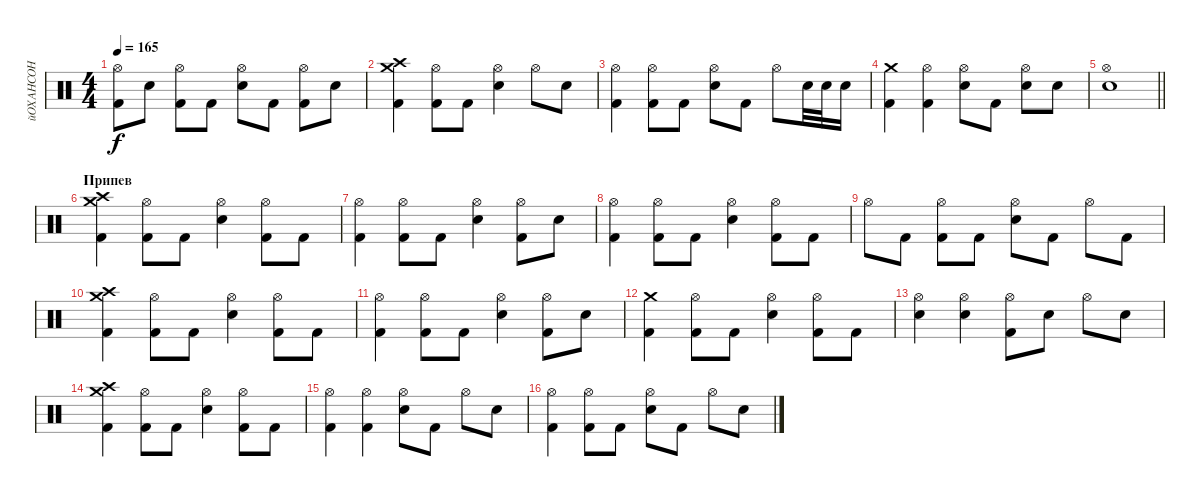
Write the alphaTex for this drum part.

\track ("йОХАНСОН" "йОХАНСОН") {instrument percussion}
\staff {score}
\articulation defaults
\ts (4 4)
\tempo 165
\clef neutral
\ks c
("Hi-Hat (open)" "Kick (hit) 2").8{dy f} "Snare (hit) 2".8 ("Hi-Hat (open)" "Kick (hit) 2").8 "Kick (hit) 2".8 ("Hi-Hat (open)" "Snare (hit) 2").8 "Kick (hit) 2".8 ("Hi-Hat (open)" "Kick (hit) 2").8 "Snare (hit) 2".8 |
("Crash high (hit)" "Crash medium (hit)" "Kick (hit) 2").4 ("Hi-Hat (open)" "Kick (hit) 2").8 "Kick (hit) 2".8 ("Hi-Hat (open)" "Snare (hit) 2").4 "Hi-Hat (open)".8 "Snare (hit) 2".8 |
("Hi-Hat (open)" "Kick (hit) 2").4 ("Hi-Hat (open)" "Kick (hit) 2").8 "Kick (hit) 2".8 ("Hi-Hat (open)" "Snare (hit) 2").8 "Kick (hit) 2".8 "Hi-Hat (open)".8 "Snare (hit) 2".32 "Snare (hit) 2".32 "Snare (hit) 2".16 |
("Crash medium (hit)" "Kick (hit) 2").4 ("Hi-Hat (open)" "Kick (hit) 2").4 ("Hi-Hat (open)" "Snare (hit) 2").8 "Kick (hit) 2".8 ("Hi-Hat (open)" "Snare (hit) 2").8 "Snare (hit) 2".8 |
\barLineRight lightlight
("Hi-Hat (open)" "Snare (hit) 2").1 |
\section ("" "Припев")
("Crash high (hit)" "Crash medium (hit)" "Kick (hit) 2").4 ("Hi-Hat (open)" "Kick (hit) 2").8 "Kick (hit) 2".8 ("Hi-Hat (open)" "Snare (hit) 2").4 ("Hi-Hat (open)" "Kick (hit) 2").8 "Kick (hit) 2".8 |
("Hi-Hat (open)" "Kick (hit) 2").4 ("Hi-Hat (open)" "Kick (hit) 2").8 "Kick (hit) 2".8 ("Hi-Hat (open)" "Snare (hit) 2").4 ("Hi-Hat (open)" "Kick (hit) 2").8 "Snare (hit) 2".8 |
("Hi-Hat (open)" "Kick (hit) 2").4 ("Hi-Hat (open)" "Kick (hit) 2").8 "Kick (hit) 2".8 ("Hi-Hat (open)" "Snare (hit) 2").4 ("Hi-Hat (open)" "Kick (hit) 2").8 "Kick (hit) 2".8 |
"Hi-Hat (open)".8 "Kick (hit) 2".8 ("Hi-Hat (open)" "Kick (hit) 2").8 "Kick (hit) 2".8 ("Hi-Hat (open)" "Snare (hit) 2").8 "Kick (hit) 2".8 "Hi-Hat (open)".8 "Kick (hit) 2".8 |
("Crash high (hit)" "Crash medium (hit)" "Kick (hit) 2").4 ("Hi-Hat (open)" "Kick (hit) 2").8 "Kick (hit) 2".8 ("Hi-Hat (open)" "Snare (hit) 2").4 ("Hi-Hat (open)" "Kick (hit) 2").8 "Kick (hit) 2".8 |
("Hi-Hat (open)" "Kick (hit) 2").4 ("Hi-Hat (open)" "Kick (hit) 2").8 "Kick (hit) 2".8 ("Hi-Hat (open)" "Snare (hit) 2").4 ("Hi-Hat (open)" "Kick (hit) 2").8 "Snare (hit) 2".8 |
("Crash medium (hit)" "Kick (hit) 2").4 ("Hi-Hat (open)" "Kick (hit) 2").8 "Kick (hit) 2".8 ("Hi-Hat (open)" "Snare (hit) 2").4 ("Hi-Hat (open)" "Kick (hit) 2").8 "Kick (hit) 2".8 |
("Hi-Hat (open)" "Snare (hit) 2").4 ("Hi-Hat (open)" "Snare (hit) 2").4 ("Hi-Hat (open)" "Kick (hit) 2").8 "Snare (hit) 2".8 "Hi-Hat (open)".8 "Snare (hit) 2".8 |
("Crash high (hit)" "Crash medium (hit)" "Kick (hit) 2").4 ("Hi-Hat (open)" "Kick (hit) 2").8 "Kick (hit) 2".8 ("Hi-Hat (open)" "Snare (hit) 2").4 ("Hi-Hat (open)" "Kick (hit) 2").8 "Kick (hit) 2".8 |
("Hi-Hat (open)" "Kick (hit) 2").4 ("Hi-Hat (open)" "Kick (hit) 2").4 ("Hi-Hat (open)" "Snare (hit) 2").8 "Kick (hit) 2".8 "Hi-Hat (open)".8 "Snare (hit) 2".8 |
("Hi-Hat (open)" "Kick (hit) 2").4 ("Hi-Hat (open)" "Kick (hit) 2").8 "Kick (hit) 2".8 ("Hi-Hat (open)" "Snare (hit) 2").8 "Kick (hit) 2".8 "Hi-Hat (open)".8 "Snare (hit) 2".8
